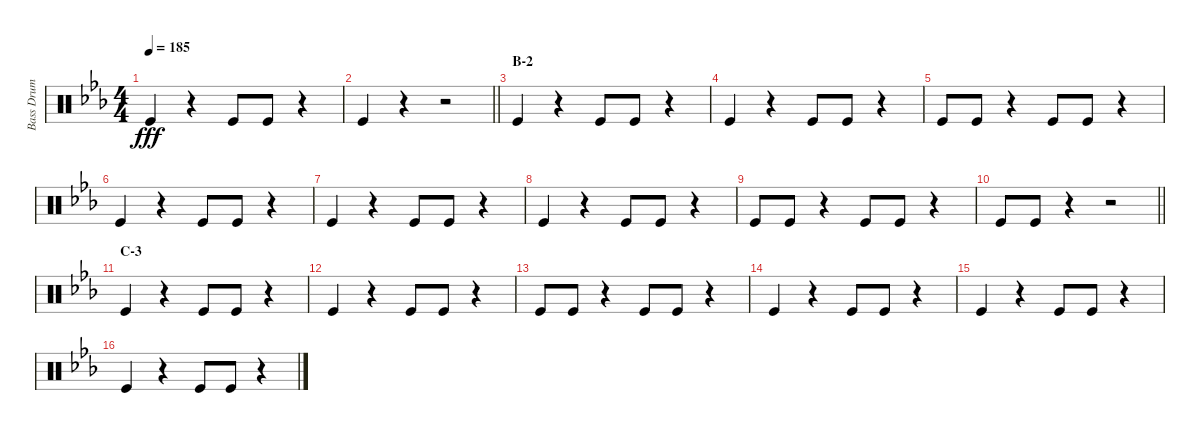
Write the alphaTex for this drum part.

\track ("Bass Drum" "Bass Drum") {instrument percussion}
\staff {score}
\articulation defaults
\ts (4 4)
\tempo 185
\clef neutral
\ks eb "Kick (hit)".4{dy fff}
r.4 "Kick (hit)".8 "Kick (hit)".8 r.4 |
\barLineRight lightlight "Kick (hit)".4
r.4 r.2 |
\section ("" "B-2")
"Kick (hit)".4 r.4 "Kick (hit)".8 "Kick (hit)".8 r.4 |
"Kick (hit)".4 r.4 "Kick (hit)".8 "Kick (hit)".8 r.4 |
"Kick (hit)".8 "Kick (hit)".8 r.4 "Kick (hit)".8 "Kick (hit)".8 r.4 |
"Kick (hit)".4 r.4 "Kick (hit)".8 "Kick (hit)".8 r.4 |
"Kick (hit)".4 r.4 "Kick (hit)".8 "Kick (hit)".8 r.4 |
"Kick (hit)".4 r.4 "Kick (hit)".8 "Kick (hit)".8 r.4 |
"Kick (hit)".8 "Kick (hit)".8 r.4 "Kick (hit)".8 "Kick (hit)".8 r.4 |
\barLineRight lightlight "Kick (hit)".8 "Kick (hit)".8
r.4 r.2 |
\section ("" "C-3")
"Kick (hit)".4 r.4 "Kick (hit)".8 "Kick (hit)".8 r.4 |
"Kick (hit)".4 r.4 "Kick (hit)".8 "Kick (hit)".8 r.4 |
"Kick (hit)".8 "Kick (hit)".8 r.4 "Kick (hit)".8 "Kick (hit)".8 r.4 |
"Kick (hit)".4 r.4 "Kick (hit)".8 "Kick (hit)".8 r.4 |
"Kick (hit)".4 r.4 "Kick (hit)".8 "Kick (hit)".8 r.4 |
"Kick (hit)".4 r.4 "Kick (hit)".8 "Kick (hit)".8 r.4
